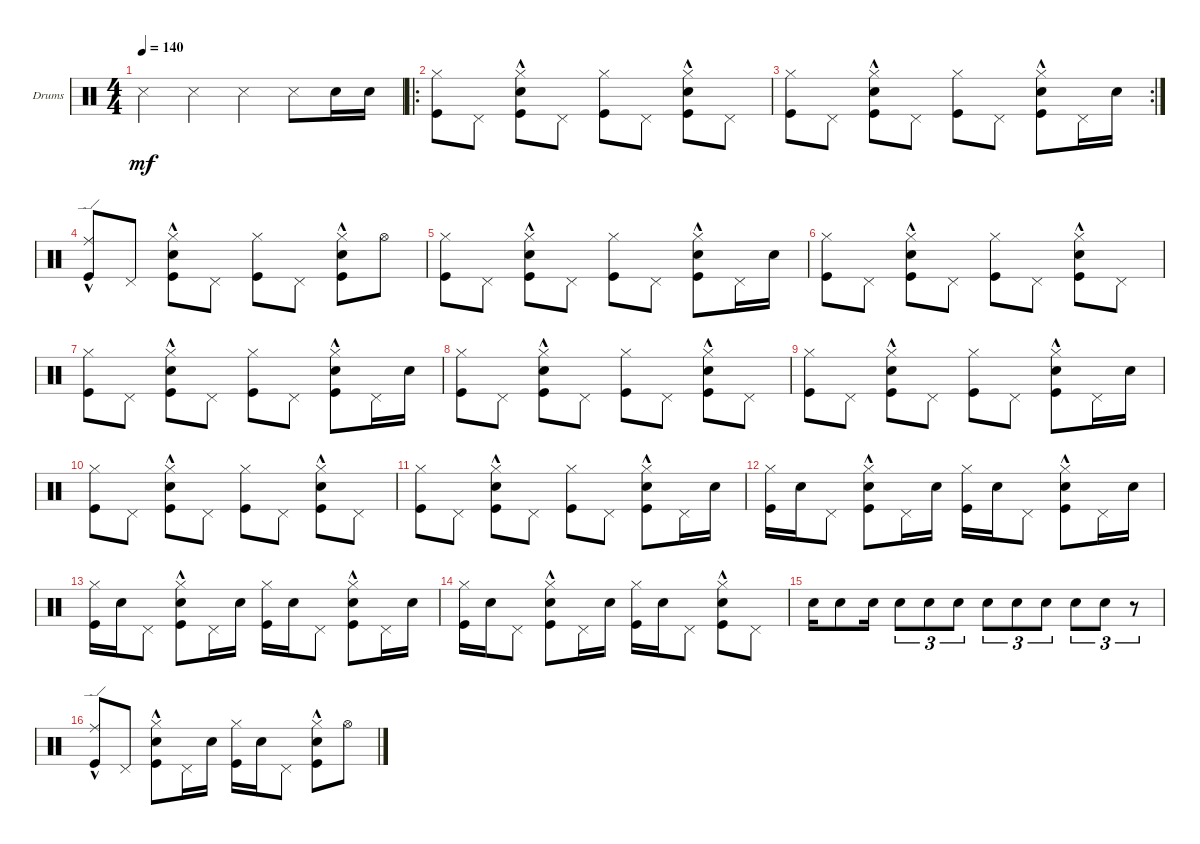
\defaultSystemsLayout 4
\bracketExtendMode groupsimilarinstruments
\firstSystemTrackNameOrientation horizontal
\otherSystemsTrackNameOrientation horizontal
\track ("Drumkit" "Drums") {instrument percussion}
\staff {score}
\articulation defaults
\ts (4 4)
\tempo 140
\clef neutral
\scale
0.276625
\ks c "Snare (side stick) 3".4{dy mf} "Snare (side stick) 3".4 "Snare (side stick) 3".4 "Snare (side stick) 3".8 "Snare (hit) 2".16 "Snare (hit) 2".16
|
\ro
\scale
0.237898 ("Kick (hit)" "Hi-Hat (closed)").8 "Pedal Hi-Hat (hit)".8 ("Hi-Hat (closed)" "Kick (hit)" "Snare (hit) 2"{hac}).8 "Pedal Hi-Hat (hit)".8 ("Kick (hit)" "Hi-Hat (closed)").8 "Pedal Hi-Hat (hit)".8 ("Hi-Hat (closed)" "Kick (hit)" "Snare (hit) 2"{hac}).8 "Pedal Hi-Hat (hit)".8 |
\rc 2
\scale
0.264177 ("Kick (hit)" "Hi-Hat (closed)").8 "Pedal Hi-Hat (hit)".8 ("Hi-Hat (closed)" "Kick (hit)" "Snare (hit) 2"{hac}).8 "Pedal Hi-Hat (hit)".8 ("Kick (hit)" "Hi-Hat (closed)").8 "Pedal Hi-Hat (hit)".8 ("Hi-Hat (closed)" "Kick (hit)" "Snare (hit) 2"{hac}).8 "Pedal Hi-Hat (hit)".16 "Snare (hit) 2".16 |
\scale
0.2213 ("Kick (hit)" "Ride (edge)"{hac}).8 "Pedal Hi-Hat (hit)".8 ("Hi-Hat (closed)" "Kick (hit)" "Snare (hit) 2"{hac}).8 "Pedal Hi-Hat (hit)".8 ("Kick (hit)" "Hi-Hat (closed)").8 "Pedal Hi-Hat (hit)".8 ("Hi-Hat (closed)" "Kick (hit)" "Snare (hit) 2"{hac}).8 "Hi-Hat (open)".8 |
\scale
0.268116 ("Kick (hit)" "Hi-Hat (closed)").8 "Pedal Hi-Hat (hit)".8 ("Hi-Hat (closed)" "Kick (hit)" "Snare (hit) 2"{hac}).8 "Pedal Hi-Hat (hit)".8 ("Kick (hit)" "Hi-Hat (closed)").8 "Pedal Hi-Hat (hit)".8 ("Hi-Hat (closed)" "Kick (hit)" "Snare (hit) 2"{hac}).8 "Pedal Hi-Hat (hit)".16 "Snare (hit) 2".16 |
\scale
0.231884 ("Kick (hit)" "Hi-Hat (closed)").8 "Pedal Hi-Hat (hit)".8 ("Hi-Hat (closed)" "Kick (hit)" "Snare (hit) 2"{hac}).8 "Pedal Hi-Hat (hit)".8 ("Kick (hit)" "Hi-Hat (closed)").8 "Pedal Hi-Hat (hit)".8 ("Hi-Hat (closed)" "Kick (hit)" "Snare (hit) 2"{hac}).8 "Pedal Hi-Hat (hit)".8 |
\scale
0.268116 ("Kick (hit)" "Hi-Hat (closed)").8 "Pedal Hi-Hat (hit)".8 ("Hi-Hat (closed)" "Kick (hit)" "Snare (hit) 2"{hac}).8 "Pedal Hi-Hat (hit)".8 ("Kick (hit)" "Hi-Hat (closed)").8 "Pedal Hi-Hat (hit)".8 ("Hi-Hat (closed)" "Kick (hit)" "Snare (hit) 2"{hac}).8 "Pedal Hi-Hat (hit)".16 "Snare (hit) 2".16 |
\scale
0.231884 ("Kick (hit)" "Hi-Hat (closed)").8 "Pedal Hi-Hat (hit)".8 ("Hi-Hat (closed)" "Kick (hit)" "Snare (hit) 2"{hac}).8 "Pedal Hi-Hat (hit)".8 ("Kick (hit)" "Hi-Hat (closed)").8 "Pedal Hi-Hat (hit)".8 ("Hi-Hat (closed)" "Kick (hit)" "Snare (hit) 2"{hac}).8 "Pedal Hi-Hat (hit)".8 |
\scale
0.249326 ("Kick (hit)" "Hi-Hat (closed)").8 "Pedal Hi-Hat (hit)".8 ("Hi-Hat (closed)" "Kick (hit)" "Snare (hit) 2"{hac}).8 "Pedal Hi-Hat (hit)".8 ("Kick (hit)" "Hi-Hat (closed)").8 "Pedal Hi-Hat (hit)".8 ("Hi-Hat (closed)" "Kick (hit)" "Snare (hit) 2"{hac}).8 "Pedal Hi-Hat (hit)".16 "Snare (hit) 2".16 |
\scale
0.215633 ("Kick (hit)" "Hi-Hat (closed)").8 "Pedal Hi-Hat (hit)".8 ("Hi-Hat (closed)" "Kick (hit)" "Snare (hit) 2"{hac}).8 "Pedal Hi-Hat (hit)".8 ("Kick (hit)" "Hi-Hat (closed)").8 "Pedal Hi-Hat (hit)".8 ("Hi-Hat (closed)" "Kick (hit)" "Snare (hit) 2"{hac}).8 "Pedal Hi-Hat (hit)".8 |
\scale
0.249326 ("Kick (hit)" "Hi-Hat (closed)").8 "Pedal Hi-Hat (hit)".8 ("Hi-Hat (closed)" "Kick (hit)" "Snare (hit) 2"{hac}).8 "Pedal Hi-Hat (hit)".8 ("Kick (hit)" "Hi-Hat (closed)").8 "Pedal Hi-Hat (hit)".8 ("Hi-Hat (closed)" "Kick (hit)" "Snare (hit) 2"{hac}).8 "Pedal Hi-Hat (hit)".16 "Snare (hit) 2".16 |
\scale
0.285714 ("Kick (hit)" "Hi-Hat (closed)").16 "Snare (hit) 2".16 "Pedal Hi-Hat (hit)".8 ("Hi-Hat (closed)" "Kick (hit)" "Snare (hit) 2"{hac}).8 "Pedal Hi-Hat (hit)".16 "Snare (hit) 2".16 ("Kick (hit)" "Hi-Hat (closed)").16 "Snare (hit) 2".16 "Pedal Hi-Hat (hit)".8 ("Hi-Hat (closed)" "Kick (hit)" "Snare (hit) 2"{hac}).8 "Pedal Hi-Hat (hit)".16 "Snare (hit) 2".16 |
\scale
0.257282 ("Kick (hit)" "Hi-Hat (closed)").16 "Snare (hit) 2".16 "Pedal Hi-Hat (hit)".8 ("Hi-Hat (closed)" "Kick (hit)" "Snare (hit) 2"{hac}).8 "Pedal Hi-Hat (hit)".16 "Snare (hit) 2".16 ("Kick (hit)" "Hi-Hat (closed)").16 "Snare (hit) 2".16 "Pedal Hi-Hat (hit)".8 ("Hi-Hat (closed)" "Kick (hit)" "Snare (hit) 2"{hac}).8 "Pedal Hi-Hat (hit)".16 "Snare (hit) 2".16 |
\scale
0.246359 ("Kick (hit)" "Hi-Hat (closed)").16 "Snare (hit) 2".16 "Pedal Hi-Hat (hit)".8 ("Hi-Hat (closed)" "Kick (hit)" "Snare (hit) 2"{hac}).8 "Pedal Hi-Hat (hit)".16 "Snare (hit) 2".16 ("Kick (hit)" "Hi-Hat (closed)").16 "Snare (hit) 2".16 "Pedal Hi-Hat (hit)".8 ("Hi-Hat (closed)" "Kick (hit)" "Snare (hit) 2"{hac}).8 "Pedal Hi-Hat (hit)".8 |
\scale
0.260922 "Snare (hit) 2".16 "Snare (hit) 2".8 "Snare (hit) 2".16 "Snare (hit) 2".8{tu (3 2)} "Snare (hit) 2".8{tu (3 2)} "Snare (hit) 2".8{tu (3 2)} "Snare (hit) 2".8{tu (3 2)} "Snare (hit) 2".8{tu (3 2)} "Snare (hit) 2".8{tu (3 2)} "Snare (hit) 2".8{tu (3 2)} "Snare (hit) 2".8{tu (3 2)} r.8{tu (3 2)} |
\scale
0.235437 ("Kick (hit)" "Ride (edge)"{hac}).8 "Pedal Hi-Hat (hit)".8 ("Hi-Hat (closed)" "Kick (hit)" "Snare (hit) 2"{hac}).8 "Pedal Hi-Hat (hit)".16 "Snare (hit) 2".16 ("Kick (hit)" "Hi-Hat (closed)").16 "Snare (hit) 2".16 "Pedal Hi-Hat (hit)".8 ("Hi-Hat (closed)" "Kick (hit)" "Snare (hit) 2"{hac}).8 "Hi-Hat (open)".8
